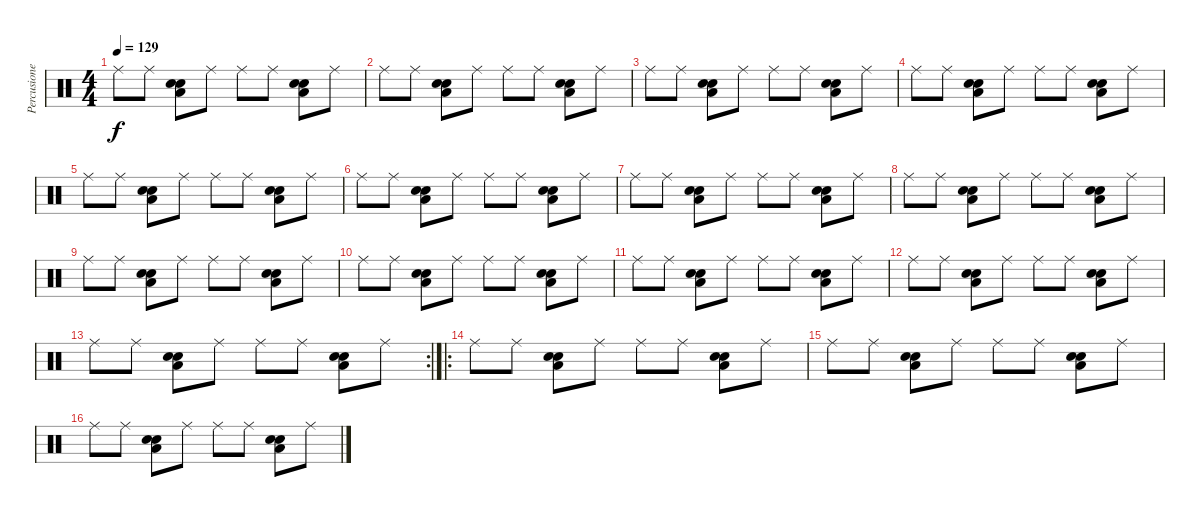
\track ("Percusiones" "Percusione") {instrument percussion}
\staff {score}
\articulation defaults
\ts (4 4)
\tempo 129
\clef neutral
\ks c "Ride (middle)".8{dy f} "Ride (middle)".8
("Electric Snare (hit)" "Low Floor Tom (hit)" "Snare (hit) 2").8 "Ride (middle)".8 "Ride (middle)".8 "Ride (middle)".8 ("Electric Snare (hit)" "Low Floor Tom (hit)" "Snare (hit) 2").8 "Ride (middle)".8 |
"Ride (middle)".8 "Ride (middle)".8 ("Electric Snare (hit)" "Low Floor Tom (hit)" "Snare (hit) 2").8 "Ride (middle)".8 "Ride (middle)".8 "Ride (middle)".8 ("Electric Snare (hit)" "Low Floor Tom (hit)" "Snare (hit) 2").8 "Ride (middle)".8 |
"Ride (middle)".8 "Ride (middle)".8 ("Electric Snare (hit)" "Low Floor Tom (hit)" "Snare (hit) 2").8 "Ride (middle)".8 "Ride (middle)".8 "Ride (middle)".8 ("Electric Snare (hit)" "Low Floor Tom (hit)" "Snare (hit) 2").8 "Ride (middle)".8 |
"Ride (middle)".8 "Ride (middle)".8 ("Electric Snare (hit)" "Low Floor Tom (hit)" "Snare (hit) 2").8 "Ride (middle)".8 "Ride (middle)".8 "Ride (middle)".8 ("Electric Snare (hit)" "Low Floor Tom (hit)" "Snare (hit) 2").8 "Ride (middle)".8 |
"Ride (middle)".8 "Ride (middle)".8 ("Electric Snare (hit)" "Low Floor Tom (hit)" "Snare (hit) 2").8 "Ride (middle)".8 "Ride (middle)".8 "Ride (middle)".8 ("Electric Snare (hit)" "Low Floor Tom (hit)" "Snare (hit) 2").8 "Ride (middle)".8 |
"Ride (middle)".8 "Ride (middle)".8 ("Electric Snare (hit)" "Low Floor Tom (hit)" "Snare (hit) 2").8 "Ride (middle)".8 "Ride (middle)".8 "Ride (middle)".8 ("Electric Snare (hit)" "Low Floor Tom (hit)" "Snare (hit) 2").8 "Ride (middle)".8 |
"Ride (middle)".8 "Ride (middle)".8 ("Electric Snare (hit)" "Low Floor Tom (hit)" "Snare (hit) 2").8 "Ride (middle)".8 "Ride (middle)".8 "Ride (middle)".8 ("Electric Snare (hit)" "Low Floor Tom (hit)" "Snare (hit) 2").8 "Ride (middle)".8 |
"Ride (middle)".8 "Ride (middle)".8 ("Electric Snare (hit)" "Low Floor Tom (hit)" "Snare (hit) 2").8 "Ride (middle)".8 "Ride (middle)".8 "Ride (middle)".8 ("Electric Snare (hit)" "Low Floor Tom (hit)" "Snare (hit) 2").8 "Ride (middle)".8 |
"Ride (middle)".8 "Ride (middle)".8 ("Electric Snare (hit)" "Low Floor Tom (hit)" "Snare (hit) 2").8 "Ride (middle)".8 "Ride (middle)".8 "Ride (middle)".8 ("Electric Snare (hit)" "Low Floor Tom (hit)" "Snare (hit) 2").8 "Ride (middle)".8 |
"Ride (middle)".8 "Ride (middle)".8 ("Electric Snare (hit)" "Low Floor Tom (hit)" "Snare (hit) 2").8 "Ride (middle)".8 "Ride (middle)".8 "Ride (middle)".8 ("Electric Snare (hit)" "Low Floor Tom (hit)" "Snare (hit) 2").8 "Ride (middle)".8 |
"Ride (middle)".8 "Ride (middle)".8 ("Electric Snare (hit)" "Low Floor Tom (hit)" "Snare (hit) 2").8 "Ride (middle)".8 "Ride (middle)".8 "Ride (middle)".8 ("Electric Snare (hit)" "Low Floor Tom (hit)" "Snare (hit) 2").8 "Ride (middle)".8 |
"Ride (middle)".8 "Ride (middle)".8 ("Electric Snare (hit)" "Low Floor Tom (hit)" "Snare (hit) 2").8 "Ride (middle)".8 "Ride (middle)".8 "Ride (middle)".8 ("Electric Snare (hit)" "Low Floor Tom (hit)" "Snare (hit) 2").8 "Ride (middle)".8 |
\rc 2 "Ride (middle)".8 "Ride (middle)".8
("Electric Snare (hit)" "Low Floor Tom (hit)" "Snare (hit) 2").8 "Ride (middle)".8 "Ride (middle)".8 "Ride (middle)".8 ("Electric Snare (hit)" "Low Floor Tom (hit)" "Snare (hit) 2").8 "Ride (middle)".8 |
\ro "Ride (middle)".8 "Ride (middle)".8
("Electric Snare (hit)" "Low Floor Tom (hit)" "Snare (hit) 2").8 "Ride (middle)".8 "Ride (middle)".8 "Ride (middle)".8 ("Electric Snare (hit)" "Low Floor Tom (hit)" "Snare (hit) 2").8 "Ride (middle)".8 |
"Ride (middle)".8 "Ride (middle)".8 ("Electric Snare (hit)" "Low Floor Tom (hit)" "Snare (hit) 2").8 "Ride (middle)".8 "Ride (middle)".8 "Ride (middle)".8 ("Electric Snare (hit)" "Low Floor Tom (hit)" "Snare (hit) 2").8 "Ride (middle)".8 |
"Ride (middle)".8 "Ride (middle)".8 ("Electric Snare (hit)" "Low Floor Tom (hit)" "Snare (hit) 2").8 "Ride (middle)".8 "Ride (middle)".8 "Ride (middle)".8 ("Electric Snare (hit)" "Low Floor Tom (hit)" "Snare (hit) 2").8 "Ride (middle)".8
